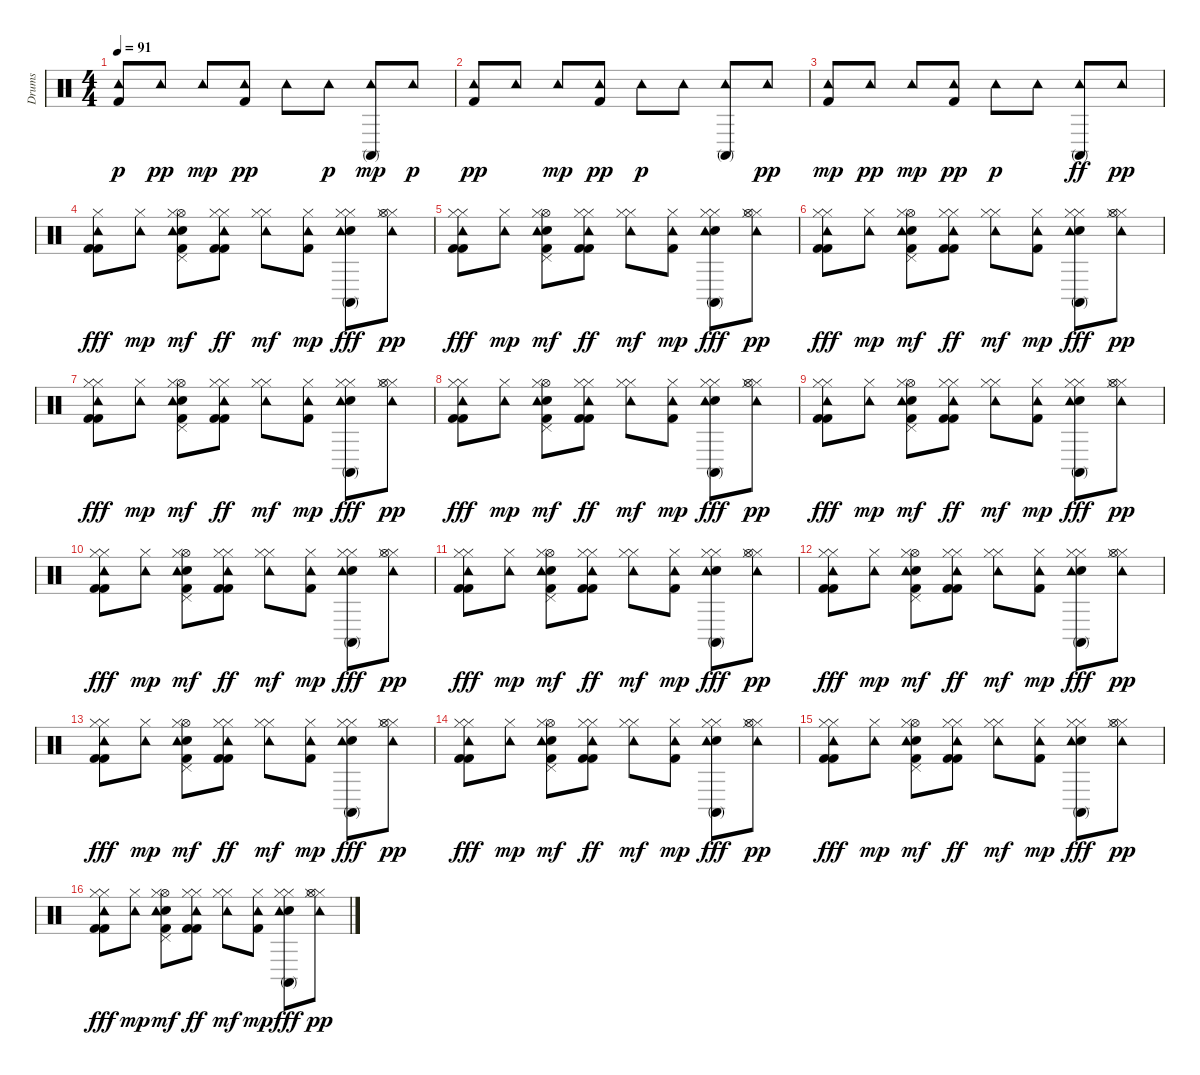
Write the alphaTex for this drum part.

\track ("Drums" "Drums") {instrument percussion}
\staff {score}
\articulation defaults
\ts (4 4)
\tempo 91
\clef neutral
\ks c
("Kick (hit) 2" "Tambourine (hit)").8{dy p} "Tambourine (hit)".8{dy pp} "Tambourine (hit)".8{dy mp} ("Kick (hit) 2" "Tambourine (hit)").8{dy pp} "Tambourine (hit)".8 "Tambourine (hit)".8{dy p} ("Tambourine (hit)" "Conga high (mute)").8{dy mp} "Tambourine (hit)".8{dy p} |
("Kick (hit) 2" "Tambourine (hit)").8{dy pp} "Tambourine (hit)".8 "Tambourine (hit)".8{dy mp} ("Kick (hit) 2" "Tambourine (hit)").8{dy pp} "Tambourine (hit)".8{dy p} "Tambourine (hit)".8 ("Tambourine (hit)" "Conga high (mute)").8 "Tambourine (hit)".8{dy pp} |
("Kick (hit) 2" "Tambourine (hit)").8{dy mp} "Tambourine (hit)".8{dy pp} "Tambourine (hit)".8{dy mp} ("Kick (hit) 2" "Tambourine (hit)").8{dy pp} "Tambourine (hit)".8{dy p} "Tambourine (hit)".8 ("Tambourine (hit)" "Conga high (mute)").8{dy ff} "Tambourine (hit)".8{dy pp} |
("Kick (hit) 2" "Hi-Hat (closed)" "Tambourine (hit)" "Kick (hit) 2").8{dy fff} ("Hi-Hat (closed)" "Tambourine (hit)").8{dy mp} ("Kick (hit) 2" "Pedal Hi-Hat (hit)" "Hi-Hat (open)" "Snare (hit) 2" "Hi-Hat (closed)" "Tambourine (hit)").8{dy mf} ("Hi-Hat (closed)" "Kick (hit) 2" "Hi-Hat (closed)" "Tambourine (hit)" "Kick (hit) 2").8{dy ff} ("Hi-Hat (closed)" "Hi-Hat (closed)" "Tambourine (hit)").8{dy mf} ("Kick (hit) 2" "Hi-Hat (closed)" "Tambourine (hit)").8{dy mp} ("Hi-Hat (closed)" "Snare (hit) 2" "Hi-Hat (closed)" "Tambourine (hit)" "Conga high (mute)").8{dy fff} ("Hi-Hat (closed)" "Hi-Hat (closed)" "Hi-Hat (open)" "Tambourine (hit)").8{dy pp} |
("Hi-Hat (closed)" "Kick (hit) 2" "Hi-Hat (closed)" "Tambourine (hit)" "Kick (hit) 2").8{dy fff} ("Hi-Hat (closed)" "Tambourine (hit)").8{dy mp} ("Kick (hit) 2" "Pedal Hi-Hat (hit)" "Hi-Hat (open)" "Snare (hit) 2" "Hi-Hat (closed)" "Tambourine (hit)").8{dy mf} ("Hi-Hat (closed)" "Kick (hit) 2" "Hi-Hat (closed)" "Tambourine (hit)" "Kick (hit) 2").8{dy ff} ("Hi-Hat (closed)" "Hi-Hat (closed)" "Tambourine (hit)").8{dy mf} ("Kick (hit) 2" "Hi-Hat (closed)" "Tambourine (hit)").8{dy mp} ("Hi-Hat (closed)" "Snare (hit) 2" "Hi-Hat (closed)" "Tambourine (hit)" "Conga high (mute)").8{dy fff} ("Hi-Hat (closed)" "Hi-Hat (closed)" "Hi-Hat (open)" "Tambourine (hit)").8{dy pp} |
("Hi-Hat (closed)" "Kick (hit) 2" "Hi-Hat (closed)" "Tambourine (hit)" "Kick (hit) 2").8{dy fff} ("Hi-Hat (closed)" "Tambourine (hit)").8{dy mp} ("Kick (hit) 2" "Pedal Hi-Hat (hit)" "Hi-Hat (open)" "Snare (hit) 2" "Hi-Hat (closed)" "Tambourine (hit)").8{dy mf} ("Hi-Hat (closed)" "Kick (hit) 2" "Hi-Hat (closed)" "Tambourine (hit)" "Kick (hit) 2").8{dy ff} ("Hi-Hat (closed)" "Hi-Hat (closed)" "Tambourine (hit)").8{dy mf} ("Kick (hit) 2" "Hi-Hat (closed)" "Tambourine (hit)").8{dy mp} ("Hi-Hat (closed)" "Snare (hit) 2" "Hi-Hat (closed)" "Tambourine (hit)" "Conga high (mute)").8{dy fff} ("Hi-Hat (closed)" "Hi-Hat (closed)" "Hi-Hat (open)" "Tambourine (hit)").8{dy pp} |
("Hi-Hat (closed)" "Kick (hit) 2" "Hi-Hat (closed)" "Tambourine (hit)" "Kick (hit) 2").8{dy fff} ("Hi-Hat (closed)" "Tambourine (hit)").8{dy mp} ("Kick (hit) 2" "Pedal Hi-Hat (hit)" "Hi-Hat (open)" "Snare (hit) 2" "Hi-Hat (closed)" "Tambourine (hit)").8{dy mf} ("Hi-Hat (closed)" "Kick (hit) 2" "Hi-Hat (closed)" "Tambourine (hit)" "Kick (hit) 2").8{dy ff} ("Hi-Hat (closed)" "Hi-Hat (closed)" "Tambourine (hit)").8{dy mf} ("Kick (hit) 2" "Hi-Hat (closed)" "Tambourine (hit)").8{dy mp} ("Hi-Hat (closed)" "Snare (hit) 2" "Hi-Hat (closed)" "Tambourine (hit)" "Conga high (mute)").8{dy fff} ("Hi-Hat (closed)" "Hi-Hat (closed)" "Hi-Hat (open)" "Tambourine (hit)").8{dy pp} |
("Hi-Hat (closed)" "Kick (hit) 2" "Hi-Hat (closed)" "Tambourine (hit)" "Kick (hit) 2").8{dy fff} ("Hi-Hat (closed)" "Tambourine (hit)").8{dy mp} ("Kick (hit) 2" "Pedal Hi-Hat (hit)" "Hi-Hat (open)" "Snare (hit) 2" "Hi-Hat (closed)" "Tambourine (hit)").8{dy mf} ("Hi-Hat (closed)" "Kick (hit) 2" "Hi-Hat (closed)" "Tambourine (hit)" "Kick (hit) 2").8{dy ff} ("Hi-Hat (closed)" "Hi-Hat (closed)" "Tambourine (hit)").8{dy mf} ("Kick (hit) 2" "Hi-Hat (closed)" "Tambourine (hit)").8{dy mp} ("Hi-Hat (closed)" "Snare (hit) 2" "Hi-Hat (closed)" "Tambourine (hit)" "Conga high (mute)").8{dy fff} ("Hi-Hat (closed)" "Hi-Hat (closed)" "Hi-Hat (open)" "Tambourine (hit)").8{dy pp} |
("Hi-Hat (closed)" "Kick (hit) 2" "Hi-Hat (closed)" "Tambourine (hit)" "Kick (hit) 2").8{dy fff} ("Hi-Hat (closed)" "Tambourine (hit)").8{dy mp} ("Kick (hit) 2" "Pedal Hi-Hat (hit)" "Hi-Hat (open)" "Snare (hit) 2" "Hi-Hat (closed)" "Tambourine (hit)").8{dy mf} ("Hi-Hat (closed)" "Kick (hit) 2" "Hi-Hat (closed)" "Tambourine (hit)" "Kick (hit) 2").8{dy ff} ("Hi-Hat (closed)" "Hi-Hat (closed)" "Tambourine (hit)").8{dy mf} ("Kick (hit) 2" "Hi-Hat (closed)" "Tambourine (hit)").8{dy mp} ("Hi-Hat (closed)" "Snare (hit) 2" "Hi-Hat (closed)" "Tambourine (hit)" "Conga high (mute)").8{dy fff} ("Hi-Hat (closed)" "Hi-Hat (closed)" "Hi-Hat (open)" "Tambourine (hit)").8{dy pp} |
("Hi-Hat (closed)" "Kick (hit) 2" "Hi-Hat (closed)" "Tambourine (hit)" "Kick (hit) 2").8{dy fff} ("Hi-Hat (closed)" "Tambourine (hit)").8{dy mp} ("Kick (hit) 2" "Pedal Hi-Hat (hit)" "Hi-Hat (open)" "Snare (hit) 2" "Hi-Hat (closed)" "Tambourine (hit)").8{dy mf} ("Hi-Hat (closed)" "Kick (hit) 2" "Hi-Hat (closed)" "Tambourine (hit)" "Kick (hit) 2").8{dy ff} ("Hi-Hat (closed)" "Hi-Hat (closed)" "Tambourine (hit)").8{dy mf} ("Kick (hit) 2" "Hi-Hat (closed)" "Tambourine (hit)").8{dy mp} ("Hi-Hat (closed)" "Snare (hit) 2" "Hi-Hat (closed)" "Tambourine (hit)" "Conga high (mute)").8{dy fff} ("Hi-Hat (closed)" "Hi-Hat (closed)" "Hi-Hat (open)" "Tambourine (hit)").8{dy pp} |
("Hi-Hat (closed)" "Kick (hit) 2" "Hi-Hat (closed)" "Tambourine (hit)" "Kick (hit) 2").8{dy fff} ("Hi-Hat (closed)" "Tambourine (hit)").8{dy mp} ("Kick (hit) 2" "Pedal Hi-Hat (hit)" "Hi-Hat (open)" "Snare (hit) 2" "Hi-Hat (closed)" "Tambourine (hit)").8{dy mf} ("Hi-Hat (closed)" "Kick (hit) 2" "Hi-Hat (closed)" "Tambourine (hit)" "Kick (hit) 2").8{dy ff} ("Hi-Hat (closed)" "Hi-Hat (closed)" "Tambourine (hit)").8{dy mf} ("Kick (hit) 2" "Hi-Hat (closed)" "Tambourine (hit)").8{dy mp} ("Hi-Hat (closed)" "Snare (hit) 2" "Hi-Hat (closed)" "Tambourine (hit)" "Conga high (mute)").8{dy fff} ("Hi-Hat (closed)" "Hi-Hat (closed)" "Hi-Hat (open)" "Tambourine (hit)").8{dy pp} |
("Hi-Hat (closed)" "Kick (hit) 2" "Hi-Hat (closed)" "Tambourine (hit)" "Kick (hit) 2").8{dy fff} ("Hi-Hat (closed)" "Tambourine (hit)").8{dy mp} ("Kick (hit) 2" "Pedal Hi-Hat (hit)" "Hi-Hat (open)" "Snare (hit) 2" "Hi-Hat (closed)" "Tambourine (hit)").8{dy mf} ("Hi-Hat (closed)" "Kick (hit) 2" "Hi-Hat (closed)" "Tambourine (hit)" "Kick (hit) 2").8{dy ff} ("Hi-Hat (closed)" "Hi-Hat (closed)" "Tambourine (hit)").8{dy mf} ("Kick (hit) 2" "Hi-Hat (closed)" "Tambourine (hit)").8{dy mp} ("Hi-Hat (closed)" "Snare (hit) 2" "Hi-Hat (closed)" "Tambourine (hit)" "Conga high (mute)").8{dy fff} ("Hi-Hat (closed)" "Hi-Hat (closed)" "Hi-Hat (open)" "Tambourine (hit)").8{dy pp} |
("Hi-Hat (closed)" "Kick (hit) 2" "Hi-Hat (closed)" "Tambourine (hit)" "Kick (hit) 2").8{dy fff} ("Hi-Hat (closed)" "Tambourine (hit)").8{dy mp} ("Kick (hit) 2" "Pedal Hi-Hat (hit)" "Hi-Hat (open)" "Snare (hit) 2" "Hi-Hat (closed)" "Tambourine (hit)").8{dy mf} ("Hi-Hat (closed)" "Kick (hit) 2" "Hi-Hat (closed)" "Tambourine (hit)" "Kick (hit) 2").8{dy ff} ("Hi-Hat (closed)" "Hi-Hat (closed)" "Tambourine (hit)").8{dy mf} ("Kick (hit) 2" "Hi-Hat (closed)" "Tambourine (hit)").8{dy mp} ("Hi-Hat (closed)" "Snare (hit) 2" "Hi-Hat (closed)" "Tambourine (hit)" "Conga high (mute)").8{dy fff} ("Hi-Hat (closed)" "Hi-Hat (closed)" "Hi-Hat (open)" "Tambourine (hit)").8{dy pp} |
("Hi-Hat (closed)" "Kick (hit) 2" "Hi-Hat (closed)" "Tambourine (hit)" "Kick (hit) 2").8{dy fff} ("Hi-Hat (closed)" "Tambourine (hit)").8{dy mp} ("Kick (hit) 2" "Pedal Hi-Hat (hit)" "Hi-Hat (open)" "Snare (hit) 2" "Hi-Hat (closed)" "Tambourine (hit)").8{dy mf} ("Hi-Hat (closed)" "Kick (hit) 2" "Hi-Hat (closed)" "Tambourine (hit)" "Kick (hit) 2").8{dy ff} ("Hi-Hat (closed)" "Hi-Hat (closed)" "Tambourine (hit)").8{dy mf} ("Kick (hit) 2" "Hi-Hat (closed)" "Tambourine (hit)").8{dy mp} ("Hi-Hat (closed)" "Snare (hit) 2" "Hi-Hat (closed)" "Tambourine (hit)" "Conga high (mute)").8{dy fff} ("Hi-Hat (closed)" "Hi-Hat (closed)" "Hi-Hat (open)" "Tambourine (hit)").8{dy pp} |
("Hi-Hat (closed)" "Kick (hit) 2" "Hi-Hat (closed)" "Tambourine (hit)" "Kick (hit) 2").8{dy fff} ("Hi-Hat (closed)" "Tambourine (hit)").8{dy mp} ("Kick (hit) 2" "Pedal Hi-Hat (hit)" "Hi-Hat (open)" "Snare (hit) 2" "Hi-Hat (closed)" "Tambourine (hit)").8{dy mf} ("Hi-Hat (closed)" "Kick (hit) 2" "Hi-Hat (closed)" "Tambourine (hit)" "Kick (hit) 2").8{dy ff} ("Hi-Hat (closed)" "Hi-Hat (closed)" "Tambourine (hit)").8{dy mf} ("Kick (hit) 2" "Hi-Hat (closed)" "Tambourine (hit)").8{dy mp} ("Hi-Hat (closed)" "Snare (hit) 2" "Hi-Hat (closed)" "Tambourine (hit)" "Conga high (mute)").8{dy fff} ("Hi-Hat (closed)" "Hi-Hat (closed)" "Hi-Hat (open)" "Tambourine (hit)").8{dy pp} |
("Hi-Hat (closed)" "Kick (hit) 2" "Hi-Hat (closed)" "Tambourine (hit)" "Kick (hit) 2").8{dy fff} ("Hi-Hat (closed)" "Tambourine (hit)").8{dy mp} ("Kick (hit) 2" "Pedal Hi-Hat (hit)" "Hi-Hat (open)" "Snare (hit) 2" "Hi-Hat (closed)" "Tambourine (hit)").8{dy mf} ("Hi-Hat (closed)" "Kick (hit) 2" "Hi-Hat (closed)" "Tambourine (hit)" "Kick (hit) 2").8{dy ff} ("Hi-Hat (closed)" "Hi-Hat (closed)" "Tambourine (hit)").8{dy mf} ("Kick (hit) 2" "Hi-Hat (closed)" "Tambourine (hit)").8{dy mp} ("Hi-Hat (closed)" "Snare (hit) 2" "Hi-Hat (closed)" "Tambourine (hit)" "Conga high (mute)").8{dy fff} ("Hi-Hat (closed)" "Hi-Hat (closed)" "Hi-Hat (open)" "Tambourine (hit)").8{dy pp}
